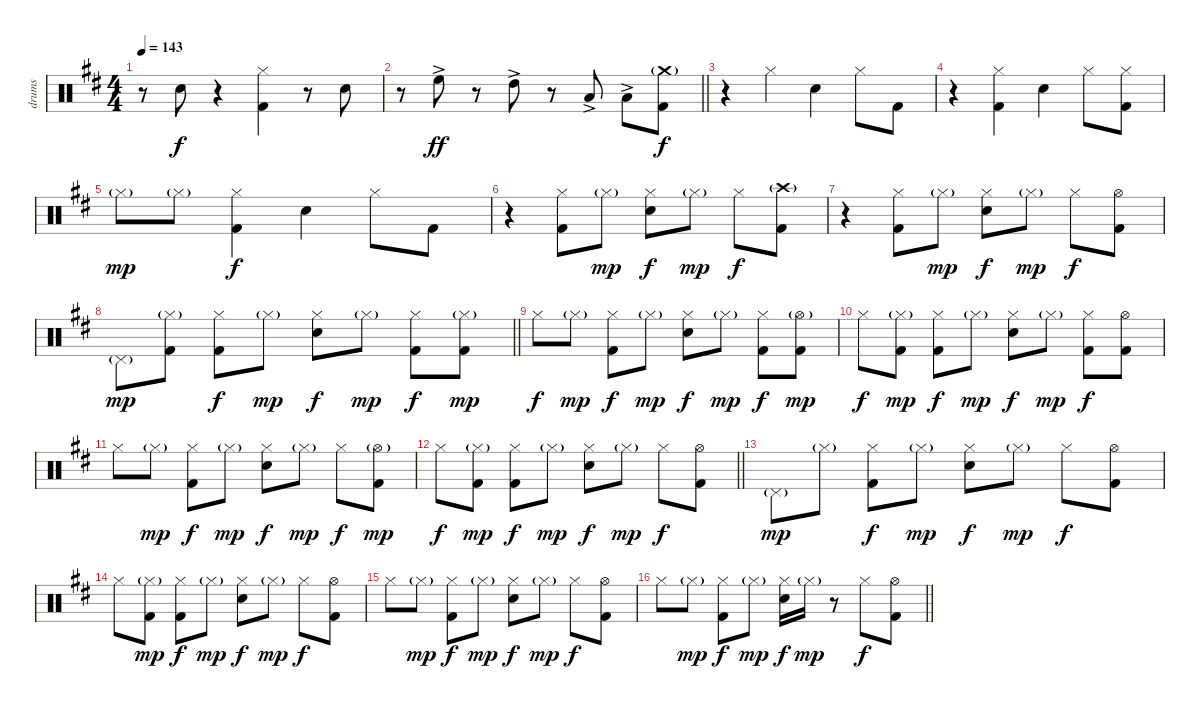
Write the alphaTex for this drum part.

\track ("drums" "drums") {instrument percussion}
\staff {score}
\articulation defaults
\ts (4 4)
\tempo 143
\clef neutral
\ks d
r.8{dy f} "Electric Snare (hit)".8 r.4 ("Hi-Hat (closed)" "Kick (hit) 2").4 r.8 "Electric Snare (hit)".8 |
\barLineRight lightlight
r.8 "High Floor Tom (hit)"{ac}.8{dy ff} r.8 "High Tom (hit)"{ac}.8 r.8 "Low Tom (hit)"{ac}.8 "Low Tom (hit)"{ac}.8 ("Crash medium (hit)"{g} "Kick (hit) 2").8{dy f} |
r.4 "Hi-Hat (closed)".4 "Electric Snare (hit)".4 "Hi-Hat (closed)".8 "Kick (hit) 2".8 |
r.4 ("Hi-Hat (closed)" "Kick (hit) 2").4 "Electric Snare (hit)".4 "Hi-Hat (closed)".8 ("Hi-Hat (closed)" "Kick (hit) 2").8 |
"Hi-Hat (closed)"{g}.8{dy mp} "Hi-Hat (closed)"{g}.8 ("Hi-Hat (closed)" "Kick (hit) 2").4{dy f} "Electric Snare (hit)".4 "Hi-Hat (closed)".8 "Kick (hit) 2".8 |
r.4 ("Hi-Hat (closed)" "Kick (hit) 2").8 "Hi-Hat (closed)"{g}.8{dy mp} ("Hi-Hat (closed)" "Electric Snare (hit)").8{dy f} "Hi-Hat (closed)"{g}.8{dy mp} "Hi-Hat (closed)".8{dy f} ("Crash high (hit)"{g} "Kick (hit) 2").8 |
r.4 ("Hi-Hat (closed)" "Kick (hit) 2").8 "Hi-Hat (closed)"{g}.8{dy mp} ("Hi-Hat (closed)" "Electric Snare (hit)").8{dy f} "Hi-Hat (closed)"{g}.8{dy mp} "Hi-Hat (closed)".8{dy f} ("Hi-Hat (open)" "Kick (hit) 2").8 |
\barLineRight lightlight "Pedal Hi-Hat (hit)"{g}.8{dy mp}
("Hi-Hat (closed)"{g} "Kick (hit) 2").8 ("Hi-Hat (closed)" "Kick (hit) 2").8{dy f} "Hi-Hat (closed)"{g}.8{dy mp} ("Hi-Hat (closed)" "Electric Snare (hit)").8{dy f} "Hi-Hat (closed)"{g}.8{dy mp} ("Hi-Hat (closed)" "Kick (hit) 2").8{dy f} ("Hi-Hat (closed)"{g} "Kick (hit) 2").8{dy mp} |
"Hi-Hat (closed)".8{dy f} "Hi-Hat (closed)"{g}.8{dy mp} ("Hi-Hat (closed)" "Kick (hit) 2").8{dy f} "Hi-Hat (closed)"{g}.8{dy mp} ("Hi-Hat (closed)" "Electric Snare (hit)").8{dy f} "Hi-Hat (closed)"{g}.8{dy mp} ("Hi-Hat (closed)" "Kick (hit) 2").8{dy f} ("Hi-Hat (open)"{g} "Kick (hit) 2").8{dy mp} |
"Hi-Hat (closed)".8{dy f} ("Hi-Hat (closed)"{g} "Kick (hit) 2").8{dy mp} ("Hi-Hat (closed)" "Kick (hit) 2").8{dy f} "Hi-Hat (closed)"{g}.8{dy mp} ("Hi-Hat (closed)" "Electric Snare (hit)").8{dy f} "Hi-Hat (closed)"{g}.8{dy mp} ("Hi-Hat (closed)" "Kick (hit) 2").8{dy f} ("Hi-Hat (open)" "Kick (hit) 2").8 |
"Hi-Hat (closed)".8 "Hi-Hat (closed)"{g}.8{dy mp} ("Hi-Hat (closed)" "Kick (hit) 2").8{dy f} "Hi-Hat (closed)"{g}.8{dy mp} ("Hi-Hat (closed)" "Electric Snare (hit)").8{dy f} "Hi-Hat (closed)"{g}.8{dy mp} "Hi-Hat (closed)".8{dy f} ("Hi-Hat (open)"{g} "Kick (hit) 2").8{dy mp} |
\barLineRight lightlight "Hi-Hat (closed)".8{dy f}
("Hi-Hat (closed)"{g} "Kick (hit) 2").8{dy mp} ("Hi-Hat (closed)" "Kick (hit) 2").8{dy f} "Hi-Hat (closed)"{g}.8{dy mp} ("Hi-Hat (closed)" "Electric Snare (hit)").8{dy f} "Hi-Hat (closed)"{g}.8{dy mp} "Hi-Hat (closed)".8{dy f} ("Hi-Hat (open)" "Kick (hit) 2").8 |
"Pedal Hi-Hat (hit)"{g}.8{dy mp} "Hi-Hat (closed)"{g}.8 ("Hi-Hat (closed)" "Kick (hit) 2").8{dy f} "Hi-Hat (closed)"{g}.8{dy mp} ("Hi-Hat (closed)" "Electric Snare (hit)").8{dy f} "Hi-Hat (closed)"{g}.8{dy mp} "Hi-Hat (closed)".8{dy f} ("Hi-Hat (open)" "Kick (hit) 2").8 |
"Hi-Hat (closed)".8 ("Hi-Hat (closed)"{g} "Kick (hit) 2").8{dy mp} ("Hi-Hat (closed)" "Kick (hit) 2").8{dy f} "Hi-Hat (closed)"{g}.8{dy mp} ("Hi-Hat (closed)" "Electric Snare (hit)").8{dy f} "Hi-Hat (closed)"{g}.8{dy mp} "Hi-Hat (closed)".8{dy f} ("Hi-Hat (open)" "Kick (hit) 2").8 |
"Hi-Hat (closed)".8 "Hi-Hat (closed)"{g}.8{dy mp} ("Hi-Hat (closed)" "Kick (hit) 2").8{dy f} "Hi-Hat (closed)"{g}.8{dy mp} ("Hi-Hat (closed)" "Electric Snare (hit)").8{dy f} "Hi-Hat (closed)"{g}.8{dy mp} "Hi-Hat (closed)".8{dy f} ("Hi-Hat (open)" "Kick (hit) 2").8 |
\barLineRight lightlight "Hi-Hat (closed)".8 "Hi-Hat (closed)"{g}.8{dy mp}
("Hi-Hat (closed)" "Kick (hit) 2").8{dy f} "Hi-Hat (closed)"{g}.8{dy mp} ("Hi-Hat (closed)" "Electric Snare (hit)").16{dy f} "Hi-Hat (closed)"{g}.16{dy mp} r.8 "Hi-Hat (closed)".8{dy f} ("Hi-Hat (open)" "Kick (hit) 2").8
